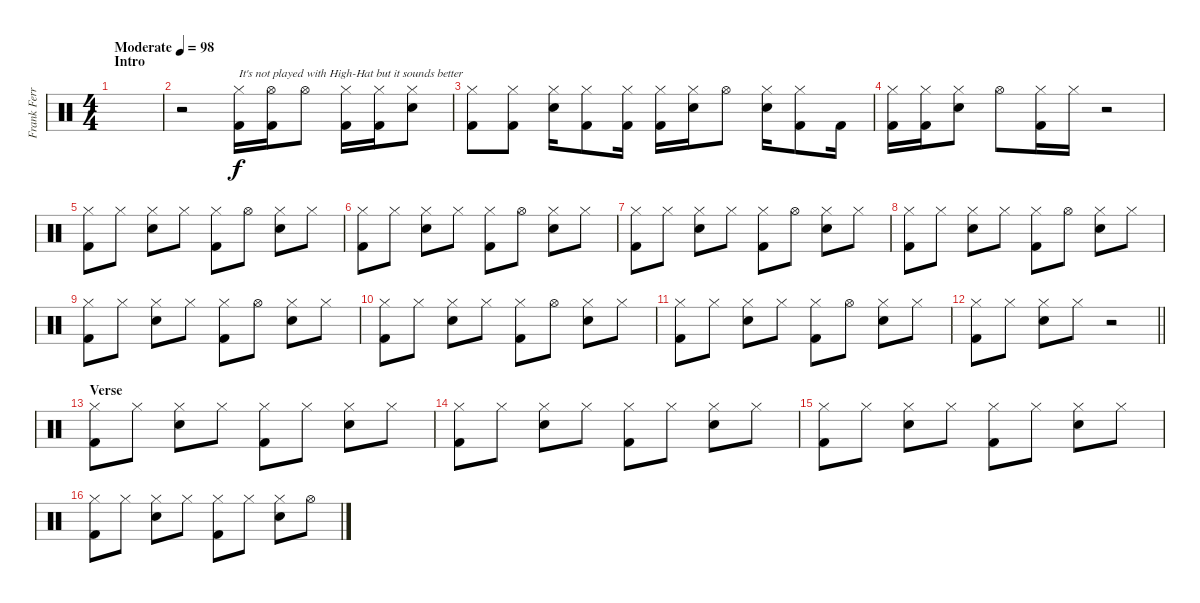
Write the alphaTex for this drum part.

\track ("Frank Ferrer" "Frank Ferr") {instrument percussion}
\staff {score}
\articulation defaults
\ts (4 4)
\section ("" "Intro")
\tempo (98 "Moderate")
\clef neutral
\ks c
|
r.2 ("Hi-Hat (closed)" "Kick (hit) 2").16{txt "It's not played with High-Hat but it sounds better"} ("Hi-Hat (open)" "Kick (hit) 2").16 "Hi-Hat (open)".8 ("Hi-Hat (closed)" "Kick (hit) 2").16 ("Hi-Hat (closed)" "Kick (hit) 2").16 ("Hi-Hat (closed)" "Snare (hit) 2").8 |
("Hi-Hat (closed)" "Kick (hit) 2").8 ("Hi-Hat (closed)" "Kick (hit) 2").8 ("Hi-Hat (closed)" "Snare (hit) 2").16 ("Hi-Hat (closed)" "Kick (hit) 2").8 ("Hi-Hat (closed)" "Kick (hit) 2").16 ("Hi-Hat (closed)" "Kick (hit) 2").16 ("Hi-Hat (closed)" "Snare (hit) 2").16 "Hi-Hat (open)".8 ("Hi-Hat (closed)" "Snare (hit) 2").16 ("Hi-Hat (closed)" "Kick (hit) 2").8 "Kick (hit) 2".16 |
("Hi-Hat (closed)" "Kick (hit) 2").16 ("Hi-Hat (closed)" "Kick (hit) 2").16 ("Hi-Hat (closed)" "Snare (hit) 2").8 "Hi-Hat (open)".8 ("Hi-Hat (closed)" "Kick (hit) 2").16 "Hi-Hat (closed)".16 r.2 |
("Hi-Hat (closed)" "Kick (hit) 2").8{volume 12} "Hi-Hat (closed)".8 ("Hi-Hat (closed)" "Electric Snare (hit)").8 "Hi-Hat (closed)".8 ("Hi-Hat (closed)" "Kick (hit) 2").8 "Hi-Hat (open)".8 ("Hi-Hat (closed)" "Electric Snare (hit)").8 "Hi-Hat (closed)".8 |
("Hi-Hat (closed)" "Kick (hit) 2").8 "Hi-Hat (closed)".8 ("Hi-Hat (closed)" "Electric Snare (hit)").8 "Hi-Hat (closed)".8 ("Hi-Hat (closed)" "Kick (hit) 2").8 "Hi-Hat (open)".8 ("Hi-Hat (closed)" "Electric Snare (hit)").8 "Hi-Hat (closed)".8 |
("Hi-Hat (closed)" "Kick (hit) 2").8 "Hi-Hat (closed)".8 ("Hi-Hat (closed)" "Electric Snare (hit)").8 "Hi-Hat (closed)".8 ("Hi-Hat (closed)" "Kick (hit) 2").8 "Hi-Hat (open)".8 ("Hi-Hat (closed)" "Electric Snare (hit)").8 "Hi-Hat (closed)".8 |
("Hi-Hat (closed)" "Kick (hit) 2").8 "Hi-Hat (closed)".8 ("Hi-Hat (closed)" "Electric Snare (hit)").8 "Hi-Hat (closed)".8 ("Hi-Hat (closed)" "Kick (hit) 2").8 "Hi-Hat (open)".8 ("Hi-Hat (closed)" "Electric Snare (hit)").8 "Hi-Hat (closed)".8 |
("Hi-Hat (closed)" "Kick (hit) 2").8 "Hi-Hat (closed)".8 ("Hi-Hat (closed)" "Electric Snare (hit)").8 "Hi-Hat (closed)".8 ("Hi-Hat (closed)" "Kick (hit) 2").8 "Hi-Hat (open)".8 ("Hi-Hat (closed)" "Electric Snare (hit)").8 "Hi-Hat (closed)".8 |
("Hi-Hat (closed)" "Kick (hit) 2").8 "Hi-Hat (closed)".8 ("Hi-Hat (closed)" "Electric Snare (hit)").8 "Hi-Hat (closed)".8 ("Hi-Hat (closed)" "Kick (hit) 2").8 "Hi-Hat (open)".8 ("Hi-Hat (closed)" "Electric Snare (hit)").8 "Hi-Hat (closed)".8 |
("Hi-Hat (closed)" "Kick (hit) 2").8 "Hi-Hat (closed)".8 ("Hi-Hat (closed)" "Electric Snare (hit)").8 "Hi-Hat (closed)".8 ("Hi-Hat (closed)" "Kick (hit) 2").8 "Hi-Hat (open)".8 ("Hi-Hat (closed)" "Electric Snare (hit)").8 "Hi-Hat (closed)".8 |
\barLineRight lightlight
("Hi-Hat (closed)" "Kick (hit) 2").8 "Hi-Hat (closed)".8 ("Hi-Hat (closed)" "Electric Snare (hit)").8 "Hi-Hat (closed)".8 r.2 |
\section ("" "Verse")
("Hi-Hat (closed)" "Kick (hit) 2").8{volume 13} "Hi-Hat (closed)".8 ("Hi-Hat (closed)" "Snare (hit) 2").8 "Hi-Hat (closed)".8 ("Hi-Hat (closed)" "Kick (hit) 2").8 "Hi-Hat (closed)".8 ("Hi-Hat (closed)" "Snare (hit) 2").8 "Hi-Hat (closed)".8 |
("Hi-Hat (closed)" "Kick (hit) 2").8 "Hi-Hat (closed)".8 ("Hi-Hat (closed)" "Snare (hit) 2").8 "Hi-Hat (closed)".8 ("Hi-Hat (closed)" "Kick (hit) 2").8 "Hi-Hat (closed)".8 ("Hi-Hat (closed)" "Snare (hit) 2").8 "Hi-Hat (closed)".8 |
("Hi-Hat (closed)" "Kick (hit) 2").8 "Hi-Hat (closed)".8 ("Hi-Hat (closed)" "Snare (hit) 2").8 "Hi-Hat (closed)".8 ("Hi-Hat (closed)" "Kick (hit) 2").8 "Hi-Hat (closed)".8 ("Hi-Hat (closed)" "Snare (hit) 2").8 "Hi-Hat (closed)".8 |
("Hi-Hat (closed)" "Kick (hit) 2").8 "Hi-Hat (closed)".8 ("Hi-Hat (closed)" "Snare (hit) 2").8 "Hi-Hat (closed)".8 ("Hi-Hat (closed)" "Kick (hit) 2").8 "Hi-Hat (closed)".8 ("Hi-Hat (closed)" "Snare (hit) 2").8 "Hi-Hat (open)".8
